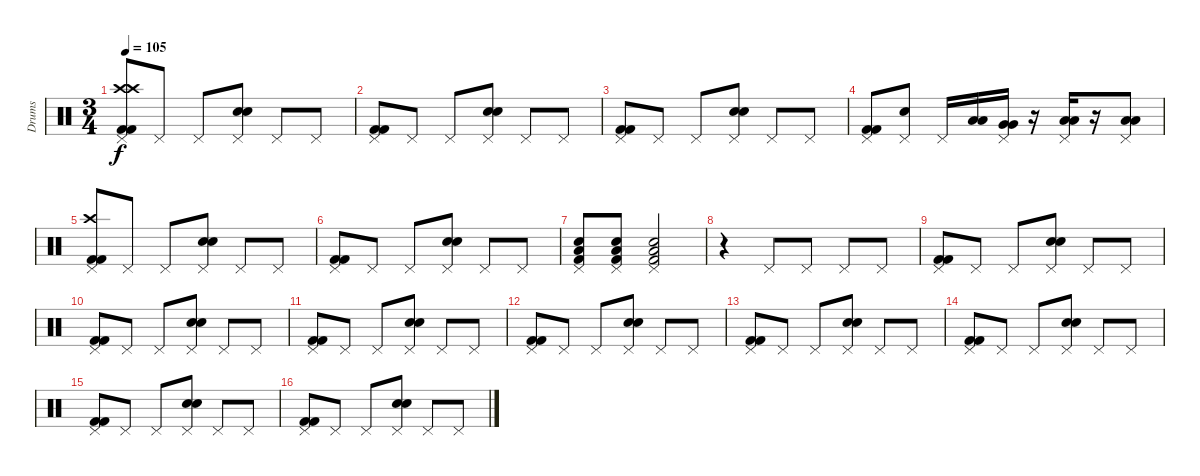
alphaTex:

\track ("Drums" "Drums") {instrument percussion}
\staff {score}
\articulation defaults
\ts (3 4)
\tempo 105
\clef neutral
\ks c
("Pedal Hi-Hat (hit)" "Crash high (hit)" "Kick (hit) 2" "Kick (hit) 2" "Crash high (hit)").8{dy f} "Pedal Hi-Hat (hit)".8 "Pedal Hi-Hat (hit)".8 ("Pedal Hi-Hat (hit)" "Electric Snare (hit)" "Electric Snare (hit)").8 "Pedal Hi-Hat (hit)".8 "Pedal Hi-Hat (hit)".8 |
("Pedal Hi-Hat (hit)" "Kick (hit) 2" "Kick (hit) 2").8 "Pedal Hi-Hat (hit)".8 "Pedal Hi-Hat (hit)".8 ("Pedal Hi-Hat (hit)" "Electric Snare (hit)" "Electric Snare (hit)").8 "Pedal Hi-Hat (hit)".8 "Pedal Hi-Hat (hit)".8 |
("Pedal Hi-Hat (hit)" "Kick (hit) 2" "Kick (hit) 2").8 "Pedal Hi-Hat (hit)".8 "Pedal Hi-Hat (hit)".8 ("Pedal Hi-Hat (hit)" "Electric Snare (hit)" "Electric Snare (hit)").8 "Pedal Hi-Hat (hit)".8 "Pedal Hi-Hat (hit)".8 |
("Pedal Hi-Hat (hit)" "Kick (hit) 2" "Kick (hit) 2").8 ("Pedal Hi-Hat (hit)" "Snare (hit) 2").8 "Pedal Hi-Hat (hit)".16 ("Low Floor Tom (hit)" "Low Floor Tom (hit)").16 ("Pedal Hi-Hat (hit)" "Very Low Tom (hit)" "Very Low Tom (hit)").16 r.16 ("Pedal Hi-Hat (hit)" "Low Floor Tom (hit)" "Low Floor Tom (hit)").16 r.16 ("Pedal Hi-Hat (hit)" "Low Floor Tom (hit)" "Low Floor Tom (hit)").8 |
("Pedal Hi-Hat (hit)" "Crash high (hit)" "Kick (hit) 2" "Kick (hit) 2").8 "Pedal Hi-Hat (hit)".8 "Pedal Hi-Hat (hit)".8 ("Pedal Hi-Hat (hit)" "Electric Snare (hit)" "Electric Snare (hit)").8 "Pedal Hi-Hat (hit)".8 "Pedal Hi-Hat (hit)".8 |
("Pedal Hi-Hat (hit)" "Kick (hit) 2" "Kick (hit) 2").8 "Pedal Hi-Hat (hit)".8 "Pedal Hi-Hat (hit)".8 ("Pedal Hi-Hat (hit)" "Electric Snare (hit)" "Electric Snare (hit)").8 "Pedal Hi-Hat (hit)".8 "Pedal Hi-Hat (hit)".8 |
("Low Tom (hit)" "Pedal Hi-Hat (hit)" "Snare (hit) 2" "Kick (hit) 2").8 ("Low Tom (hit)" "Pedal Hi-Hat (hit)" "Snare (hit) 2" "Kick (hit) 2").8 ("Low Tom (hit)" "Pedal Hi-Hat (hit)" "Snare (hit) 2" "Kick (hit) 2").2 |
r.4 "Pedal Hi-Hat (hit)".8 "Pedal Hi-Hat (hit)".8 "Pedal Hi-Hat (hit)".8 "Pedal Hi-Hat (hit)".8 |
("Pedal Hi-Hat (hit)" "Kick (hit) 2" "Kick (hit) 2").8 "Pedal Hi-Hat (hit)".8 "Pedal Hi-Hat (hit)".8 ("Pedal Hi-Hat (hit)" "Electric Snare (hit)" "Electric Snare (hit)").8 "Pedal Hi-Hat (hit)".8 "Pedal Hi-Hat (hit)".8 |
("Pedal Hi-Hat (hit)" "Kick (hit) 2" "Kick (hit) 2").8 "Pedal Hi-Hat (hit)".8 "Pedal Hi-Hat (hit)".8 ("Pedal Hi-Hat (hit)" "Electric Snare (hit)" "Electric Snare (hit)").8 "Pedal Hi-Hat (hit)".8 "Pedal Hi-Hat (hit)".8 |
("Pedal Hi-Hat (hit)" "Kick (hit) 2" "Kick (hit) 2").8 "Pedal Hi-Hat (hit)".8 "Pedal Hi-Hat (hit)".8 ("Pedal Hi-Hat (hit)" "Electric Snare (hit)" "Electric Snare (hit)").8 "Pedal Hi-Hat (hit)".8 "Pedal Hi-Hat (hit)".8 |
("Pedal Hi-Hat (hit)" "Kick (hit) 2" "Kick (hit) 2").8 "Pedal Hi-Hat (hit)".8 "Pedal Hi-Hat (hit)".8 ("Pedal Hi-Hat (hit)" "Electric Snare (hit)" "Electric Snare (hit)").8 "Pedal Hi-Hat (hit)".8 "Pedal Hi-Hat (hit)".8 |
("Pedal Hi-Hat (hit)" "Kick (hit) 2" "Kick (hit) 2").8 "Pedal Hi-Hat (hit)".8 "Pedal Hi-Hat (hit)".8 ("Pedal Hi-Hat (hit)" "Electric Snare (hit)" "Electric Snare (hit)").8 "Pedal Hi-Hat (hit)".8 "Pedal Hi-Hat (hit)".8 |
("Pedal Hi-Hat (hit)" "Kick (hit) 2" "Kick (hit) 2").8 "Pedal Hi-Hat (hit)".8 "Pedal Hi-Hat (hit)".8 ("Pedal Hi-Hat (hit)" "Electric Snare (hit)" "Electric Snare (hit)").8 "Pedal Hi-Hat (hit)".8 "Pedal Hi-Hat (hit)".8 |
("Pedal Hi-Hat (hit)" "Kick (hit) 2" "Kick (hit) 2").8 "Pedal Hi-Hat (hit)".8 "Pedal Hi-Hat (hit)".8 ("Pedal Hi-Hat (hit)" "Electric Snare (hit)" "Electric Snare (hit)").8 "Pedal Hi-Hat (hit)".8 "Pedal Hi-Hat (hit)".8 |
("Pedal Hi-Hat (hit)" "Kick (hit) 2" "Kick (hit) 2").8 "Pedal Hi-Hat (hit)".8 "Pedal Hi-Hat (hit)".8 ("Pedal Hi-Hat (hit)" "Electric Snare (hit)" "Electric Snare (hit)").8 "Pedal Hi-Hat (hit)".8 "Pedal Hi-Hat (hit)".8
